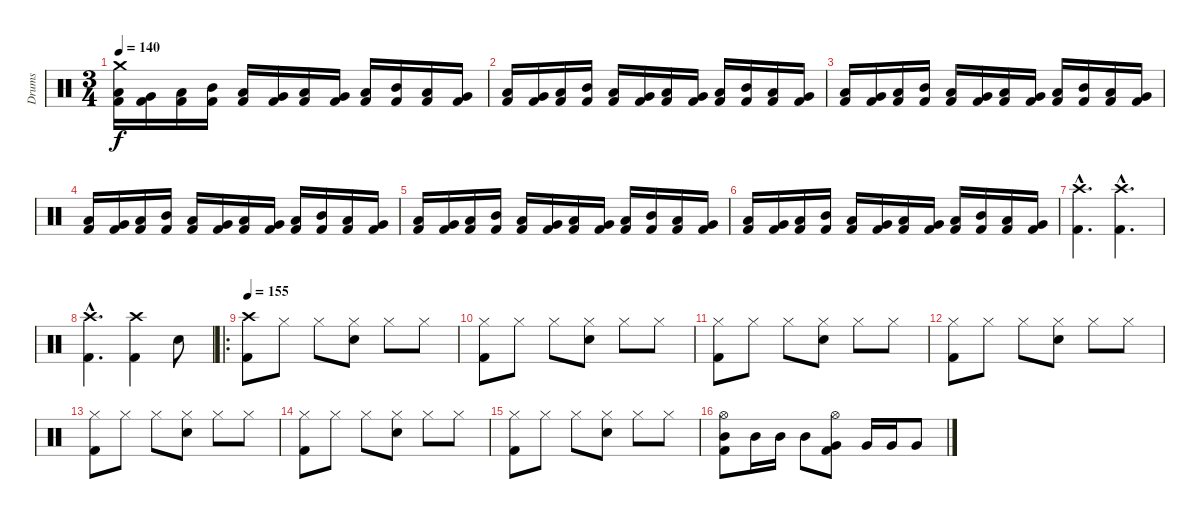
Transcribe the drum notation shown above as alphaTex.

\track ("Drums" "Drums") {instrument percussion}
\staff {score}
\articulation defaults
\ts (3 4)
\tempo 140
\clef neutral
\ks c
("Crash medium (hit)" "Low Floor Tom (hit)" "Kick (hit) 2").16{dy f} ("Very Low Tom (hit)" "Kick (hit) 2").16 ("Low Tom (hit)" "Kick (hit) 2").16 ("Mid Tom (hit)" "Kick (hit) 2").16 ("Low Tom (hit)" "Kick (hit) 2").16 ("Very Low Tom (hit)" "Kick (hit) 2").16 ("Low Floor Tom (hit)" "Kick (hit) 2").16 ("Very Low Tom (hit)" "Kick (hit) 2").16 ("Low Tom (hit)" "Kick (hit) 2").16 ("Mid Tom (hit)" "Kick (hit) 2").16 ("Low Tom (hit)" "Kick (hit) 2").16 ("Very Low Tom (hit)" "Kick (hit) 2").16 |
("Low Floor Tom (hit)" "Kick (hit) 2").16 ("Very Low Tom (hit)" "Kick (hit) 2").16 ("Low Tom (hit)" "Kick (hit) 2").16 ("Mid Tom (hit)" "Kick (hit) 2").16 ("Low Tom (hit)" "Kick (hit) 2").16 ("Very Low Tom (hit)" "Kick (hit) 2").16 ("Low Floor Tom (hit)" "Kick (hit) 2").16 ("Very Low Tom (hit)" "Kick (hit) 2").16 ("Low Tom (hit)" "Kick (hit) 2").16 ("Mid Tom (hit)" "Kick (hit) 2").16 ("Low Tom (hit)" "Kick (hit) 2").16 ("Very Low Tom (hit)" "Kick (hit) 2").16 |
("Low Floor Tom (hit)" "Kick (hit) 2").16 ("Very Low Tom (hit)" "Kick (hit) 2").16 ("Low Tom (hit)" "Kick (hit) 2").16 ("Mid Tom (hit)" "Kick (hit) 2").16 ("Low Tom (hit)" "Kick (hit) 2").16 ("Very Low Tom (hit)" "Kick (hit) 2").16 ("Low Floor Tom (hit)" "Kick (hit) 2").16 ("Very Low Tom (hit)" "Kick (hit) 2").16 ("Low Tom (hit)" "Kick (hit) 2").16 ("Mid Tom (hit)" "Kick (hit) 2").16 ("Low Tom (hit)" "Kick (hit) 2").16 ("Very Low Tom (hit)" "Kick (hit) 2").16 |
("Low Floor Tom (hit)" "Kick (hit) 2").16 ("Very Low Tom (hit)" "Kick (hit) 2").16 ("Low Tom (hit)" "Kick (hit) 2").16 ("Mid Tom (hit)" "Kick (hit) 2").16 ("Low Tom (hit)" "Kick (hit) 2").16 ("Very Low Tom (hit)" "Kick (hit) 2").16 ("Low Floor Tom (hit)" "Kick (hit) 2").16 ("Very Low Tom (hit)" "Kick (hit) 2").16 ("Low Tom (hit)" "Kick (hit) 2").16 ("Mid Tom (hit)" "Kick (hit) 2").16 ("Low Tom (hit)" "Kick (hit) 2").16 ("Very Low Tom (hit)" "Kick (hit) 2").16 |
("Low Floor Tom (hit)" "Kick (hit) 2").16 ("Very Low Tom (hit)" "Kick (hit) 2").16 ("Low Tom (hit)" "Kick (hit) 2").16 ("Mid Tom (hit)" "Kick (hit) 2").16 ("Low Tom (hit)" "Kick (hit) 2").16 ("Very Low Tom (hit)" "Kick (hit) 2").16 ("Low Floor Tom (hit)" "Kick (hit) 2").16 ("Very Low Tom (hit)" "Kick (hit) 2").16 ("Low Tom (hit)" "Kick (hit) 2").16 ("Mid Tom (hit)" "Kick (hit) 2").16 ("Low Tom (hit)" "Kick (hit) 2").16 ("Very Low Tom (hit)" "Kick (hit) 2").16 |
("Low Floor Tom (hit)" "Kick (hit) 2").16 ("Very Low Tom (hit)" "Kick (hit) 2").16 ("Low Tom (hit)" "Kick (hit) 2").16 ("Mid Tom (hit)" "Kick (hit) 2").16 ("Low Tom (hit)" "Kick (hit) 2").16 ("Very Low Tom (hit)" "Kick (hit) 2").16 ("Low Floor Tom (hit)" "Kick (hit) 2").16 ("Very Low Tom (hit)" "Kick (hit) 2").16 ("Low Tom (hit)" "Kick (hit) 2").16 ("Mid Tom (hit)" "Kick (hit) 2").16 ("Low Tom (hit)" "Kick (hit) 2").16 ("Very Low Tom (hit)" "Kick (hit) 2").16 |
("Crash high (hit)"{hac} "Kick (hit) 2"{hac}).4{d} ("Crash high (hit)"{hac} "Kick (hit) 2"{hac}).4{d} |
("Crash high (hit)"{hac} "Kick (hit) 2"{hac}).4{d} ("Crash high (hit)" "Kick (hit) 2").4 "Electric Snare (hit)".8 |
\ro
\tempo 155
("Crash high (hit)" "Kick (hit) 2").8 "Hi-Hat (closed)".8 "Hi-Hat (closed)".8 ("Hi-Hat (closed)" "Electric Snare (hit)").8 "Hi-Hat (closed)".8 "Hi-Hat (closed)".8 |
("Hi-Hat (closed)" "Kick (hit) 2").8 "Hi-Hat (closed)".8 "Hi-Hat (closed)".8 ("Hi-Hat (closed)" "Electric Snare (hit)").8 "Hi-Hat (closed)".8 "Hi-Hat (closed)".8 |
("Hi-Hat (closed)" "Kick (hit) 2").8 "Hi-Hat (closed)".8 "Hi-Hat (closed)".8 ("Hi-Hat (closed)" "Electric Snare (hit)").8 "Hi-Hat (closed)".8 "Hi-Hat (closed)".8 |
("Hi-Hat (closed)" "Kick (hit) 2").8 "Hi-Hat (closed)".8 "Hi-Hat (closed)".8 ("Hi-Hat (closed)" "Electric Snare (hit)").8 "Hi-Hat (closed)".8 "Hi-Hat (closed)".8 |
("Hi-Hat (closed)" "Kick (hit) 2").8 "Hi-Hat (closed)".8 "Hi-Hat (closed)".8 ("Hi-Hat (closed)" "Electric Snare (hit)").8 "Hi-Hat (closed)".8 "Hi-Hat (closed)".8 |
("Hi-Hat (closed)" "Kick (hit) 2").8 "Hi-Hat (closed)".8 "Hi-Hat (closed)".8 ("Hi-Hat (closed)" "Electric Snare (hit)").8 "Hi-Hat (closed)".8 "Hi-Hat (closed)".8 |
("Hi-Hat (closed)" "Kick (hit) 2").8 "Hi-Hat (closed)".8 "Hi-Hat (closed)".8 ("Hi-Hat (closed)" "Electric Snare (hit)").8 "Hi-Hat (closed)".8 "Hi-Hat (closed)".8 |
("Hi-Hat (open)" "Mid Tom (hit)" "Kick (hit) 2").8 "Mid Tom (hit)".16 "Mid Tom (hit)".16 "Mid Tom (hit)".8 ("Hi-Hat (open)" "Very Low Tom (hit)" "Kick (hit) 2").8 "Very Low Tom (hit)".16 "Very Low Tom (hit)".16 "Very Low Tom (hit)".8
